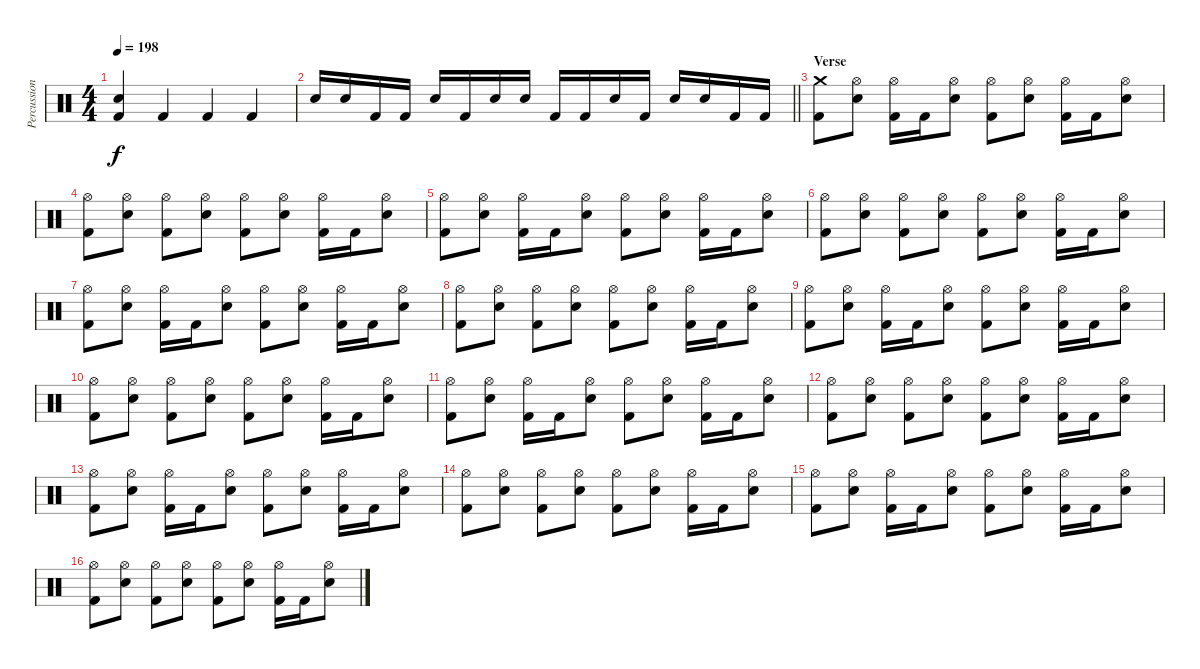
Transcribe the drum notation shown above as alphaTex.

\track ("Percussion" "Percussion") {instrument percussion}
\staff {score}
\articulation defaults
\ts (4 4)
\tempo 198
\clef neutral
\ks c
("Electric Snare (hit)" "Kick (hit) 2").4{dy f} "Kick (hit) 2".4 "Kick (hit) 2".4 "Kick (hit) 2".4 |
\barLineRight lightlight "Electric Snare (hit)".16 "Electric Snare (hit)".16 "Kick (hit) 2".16 "Kick (hit) 2".16 "Electric Snare (hit)".16 "Kick (hit) 2".16 "Electric Snare (hit)".16 "Electric Snare (hit)".16 "Kick (hit) 2".16 "Kick (hit) 2".16 "Electric Snare (hit)".16 "Kick (hit) 2".16 "Electric Snare (hit)".16 "Electric Snare (hit)".16 "Kick (hit) 2".16 "Kick (hit) 2".16
|
\section ("" "Verse")
("Crash medium (hit)" "Kick (hit) 2").8 ("Hi-Hat (open)" "Electric Snare (hit)").8 ("Hi-Hat (open)" "Kick (hit) 2").16 "Kick (hit) 2".16 ("Hi-Hat (open)" "Electric Snare (hit)").8 ("Hi-Hat (open)" "Kick (hit) 2").8 ("Hi-Hat (open)" "Electric Snare (hit)").8 ("Hi-Hat (open)" "Kick (hit) 2").16 "Kick (hit) 2".16 ("Hi-Hat (open)" "Electric Snare (hit)").8 |
("Hi-Hat (open)" "Kick (hit) 2").8 ("Hi-Hat (open)" "Electric Snare (hit)").8 ("Hi-Hat (open)" "Kick (hit) 2").8 ("Hi-Hat (open)" "Electric Snare (hit)").8 ("Hi-Hat (open)" "Kick (hit) 2").8 ("Hi-Hat (open)" "Electric Snare (hit)").8 ("Hi-Hat (open)" "Kick (hit) 2").16 "Kick (hit) 2".16 ("Hi-Hat (open)" "Electric Snare (hit)").8 |
("Hi-Hat (open)" "Kick (hit) 2").8 ("Hi-Hat (open)" "Electric Snare (hit)").8 ("Hi-Hat (open)" "Kick (hit) 2").16 "Kick (hit) 2".16 ("Hi-Hat (open)" "Electric Snare (hit)").8 ("Hi-Hat (open)" "Kick (hit) 2").8 ("Hi-Hat (open)" "Electric Snare (hit)").8 ("Hi-Hat (open)" "Kick (hit) 2").16 "Kick (hit) 2".16 ("Hi-Hat (open)" "Electric Snare (hit)").8 |
("Hi-Hat (open)" "Kick (hit) 2").8 ("Hi-Hat (open)" "Electric Snare (hit)").8 ("Hi-Hat (open)" "Kick (hit) 2").8 ("Hi-Hat (open)" "Electric Snare (hit)").8 ("Hi-Hat (open)" "Kick (hit) 2").8 ("Hi-Hat (open)" "Electric Snare (hit)").8 ("Hi-Hat (open)" "Kick (hit) 2").16 "Kick (hit) 2".16 ("Hi-Hat (open)" "Electric Snare (hit)").8 |
("Hi-Hat (open)" "Kick (hit) 2").8 ("Hi-Hat (open)" "Electric Snare (hit)").8 ("Hi-Hat (open)" "Kick (hit) 2").16 "Kick (hit) 2".16 ("Hi-Hat (open)" "Electric Snare (hit)").8 ("Hi-Hat (open)" "Kick (hit) 2").8 ("Hi-Hat (open)" "Electric Snare (hit)").8 ("Hi-Hat (open)" "Kick (hit) 2").16 "Kick (hit) 2".16 ("Hi-Hat (open)" "Electric Snare (hit)").8 |
("Hi-Hat (open)" "Kick (hit) 2").8 ("Hi-Hat (open)" "Electric Snare (hit)").8 ("Hi-Hat (open)" "Kick (hit) 2").8 ("Hi-Hat (open)" "Electric Snare (hit)").8 ("Hi-Hat (open)" "Kick (hit) 2").8 ("Hi-Hat (open)" "Electric Snare (hit)").8 ("Hi-Hat (open)" "Kick (hit) 2").16 "Kick (hit) 2".16 ("Hi-Hat (open)" "Electric Snare (hit)").8 |
("Hi-Hat (open)" "Kick (hit) 2").8 ("Hi-Hat (open)" "Electric Snare (hit)").8 ("Hi-Hat (open)" "Kick (hit) 2").16 "Kick (hit) 2".16 ("Hi-Hat (open)" "Electric Snare (hit)").8 ("Hi-Hat (open)" "Kick (hit) 2").8 ("Hi-Hat (open)" "Electric Snare (hit)").8 ("Hi-Hat (open)" "Kick (hit) 2").16 "Kick (hit) 2".16 ("Hi-Hat (open)" "Electric Snare (hit)").8 |
("Hi-Hat (open)" "Kick (hit) 2").8 ("Hi-Hat (open)" "Electric Snare (hit)").8 ("Hi-Hat (open)" "Kick (hit) 2").8 ("Hi-Hat (open)" "Electric Snare (hit)").8 ("Hi-Hat (open)" "Kick (hit) 2").8 ("Hi-Hat (open)" "Electric Snare (hit)").8 ("Hi-Hat (open)" "Kick (hit) 2").16 "Kick (hit) 2".16 ("Hi-Hat (open)" "Electric Snare (hit)").8 |
("Hi-Hat (open)" "Kick (hit) 2").8 ("Hi-Hat (open)" "Electric Snare (hit)").8 ("Hi-Hat (open)" "Kick (hit) 2").16 "Kick (hit) 2".16 ("Hi-Hat (open)" "Electric Snare (hit)").8 ("Hi-Hat (open)" "Kick (hit) 2").8 ("Hi-Hat (open)" "Electric Snare (hit)").8 ("Hi-Hat (open)" "Kick (hit) 2").16 "Kick (hit) 2".16 ("Hi-Hat (open)" "Electric Snare (hit)").8 |
("Hi-Hat (open)" "Kick (hit) 2").8 ("Hi-Hat (open)" "Electric Snare (hit)").8 ("Hi-Hat (open)" "Kick (hit) 2").8 ("Hi-Hat (open)" "Electric Snare (hit)").8 ("Hi-Hat (open)" "Kick (hit) 2").8 ("Hi-Hat (open)" "Electric Snare (hit)").8 ("Hi-Hat (open)" "Kick (hit) 2").16 "Kick (hit) 2".16 ("Hi-Hat (open)" "Electric Snare (hit)").8 |
("Hi-Hat (open)" "Kick (hit) 2").8 ("Hi-Hat (open)" "Electric Snare (hit)").8 ("Hi-Hat (open)" "Kick (hit) 2").16 "Kick (hit) 2".16 ("Hi-Hat (open)" "Electric Snare (hit)").8 ("Hi-Hat (open)" "Kick (hit) 2").8 ("Hi-Hat (open)" "Electric Snare (hit)").8 ("Hi-Hat (open)" "Kick (hit) 2").16 "Kick (hit) 2".16 ("Hi-Hat (open)" "Electric Snare (hit)").8 |
("Hi-Hat (open)" "Kick (hit) 2").8 ("Hi-Hat (open)" "Electric Snare (hit)").8 ("Hi-Hat (open)" "Kick (hit) 2").8 ("Hi-Hat (open)" "Electric Snare (hit)").8 ("Hi-Hat (open)" "Kick (hit) 2").8 ("Hi-Hat (open)" "Electric Snare (hit)").8 ("Hi-Hat (open)" "Kick (hit) 2").16 "Kick (hit) 2".16 ("Hi-Hat (open)" "Electric Snare (hit)").8 |
("Hi-Hat (open)" "Kick (hit) 2").8 ("Hi-Hat (open)" "Electric Snare (hit)").8 ("Hi-Hat (open)" "Kick (hit) 2").16 "Kick (hit) 2".16 ("Hi-Hat (open)" "Electric Snare (hit)").8 ("Hi-Hat (open)" "Kick (hit) 2").8 ("Hi-Hat (open)" "Electric Snare (hit)").8 ("Hi-Hat (open)" "Kick (hit) 2").16 "Kick (hit) 2".16 ("Hi-Hat (open)" "Electric Snare (hit)").8 |
("Hi-Hat (open)" "Kick (hit) 2").8 ("Hi-Hat (open)" "Electric Snare (hit)").8 ("Hi-Hat (open)" "Kick (hit) 2").8 ("Hi-Hat (open)" "Electric Snare (hit)").8 ("Hi-Hat (open)" "Kick (hit) 2").8 ("Hi-Hat (open)" "Electric Snare (hit)").8 ("Hi-Hat (open)" "Kick (hit) 2").16 "Kick (hit) 2".16 ("Hi-Hat (open)" "Electric Snare (hit)").8
